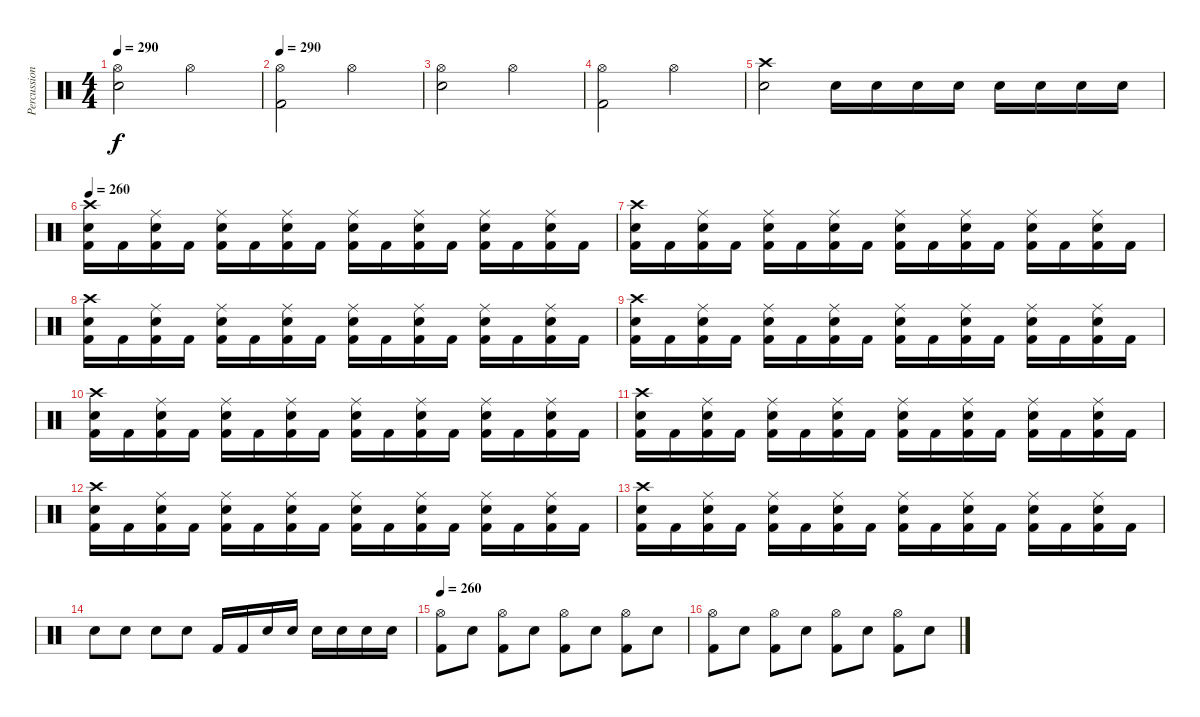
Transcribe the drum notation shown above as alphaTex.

\track ("Percussion" "Percussion") {instrument percussion}
\staff {score}
\articulation defaults
\ts (4 4)
\tempo 290
\clef neutral
\ks c
("Hi-Hat (open)" "Electric Snare (hit)").2{dy f} "Hi-Hat (open)".2 |
\tempo 290
("Hi-Hat (open)" "Kick (hit) 2").2 "Hi-Hat (open)".2 |
("Hi-Hat (open)" "Electric Snare (hit)").2 "Hi-Hat (open)".2 |
("Hi-Hat (open)" "Kick (hit) 2").2 "Hi-Hat (open)".2 |
("Crash high (hit)" "Electric Snare (hit)").2 "Electric Snare (hit)".16 "Electric Snare (hit)".16 "Electric Snare (hit)".16 "Electric Snare (hit)".16 "Electric Snare (hit)".16 "Electric Snare (hit)".16 "Electric Snare (hit)".16 "Electric Snare (hit)".16 |
\tempo 260
("Crash high (hit)" "Electric Snare (hit)" "Kick (hit) 2").16 "Kick (hit) 2".16 ("Ride (middle)" "Electric Snare (hit)" "Kick (hit) 2").16 "Kick (hit) 2".16 ("Ride (middle)" "Electric Snare (hit)" "Kick (hit) 2").16 "Kick (hit) 2".16 ("Ride (middle)" "Electric Snare (hit)" "Kick (hit) 2").16 "Kick (hit) 2".16 ("Ride (middle)" "Electric Snare (hit)" "Kick (hit) 2").16 "Kick (hit) 2".16 ("Ride (middle)" "Electric Snare (hit)" "Kick (hit) 2").16 "Kick (hit) 2".16 ("Ride (middle)" "Electric Snare (hit)" "Kick (hit) 2").16 "Kick (hit) 2".16 ("Ride (middle)" "Electric Snare (hit)" "Kick (hit) 2").16 "Kick (hit) 2".16 |
("Crash high (hit)" "Electric Snare (hit)" "Kick (hit) 2").16 "Kick (hit) 2".16 ("Ride (middle)" "Electric Snare (hit)" "Kick (hit) 2").16 "Kick (hit) 2".16 ("Ride (middle)" "Electric Snare (hit)" "Kick (hit) 2").16 "Kick (hit) 2".16 ("Ride (middle)" "Electric Snare (hit)" "Kick (hit) 2").16 "Kick (hit) 2".16 ("Ride (middle)" "Electric Snare (hit)" "Kick (hit) 2").16 "Kick (hit) 2".16 ("Ride (middle)" "Electric Snare (hit)" "Kick (hit) 2").16 "Kick (hit) 2".16 ("Ride (middle)" "Electric Snare (hit)" "Kick (hit) 2").16 "Kick (hit) 2".16 ("Ride (middle)" "Electric Snare (hit)" "Kick (hit) 2").16 "Kick (hit) 2".16 |
("Crash high (hit)" "Electric Snare (hit)" "Kick (hit) 2").16 "Kick (hit) 2".16 ("Ride (middle)" "Electric Snare (hit)" "Kick (hit) 2").16 "Kick (hit) 2".16 ("Ride (middle)" "Electric Snare (hit)" "Kick (hit) 2").16 "Kick (hit) 2".16 ("Ride (middle)" "Electric Snare (hit)" "Kick (hit) 2").16 "Kick (hit) 2".16 ("Ride (middle)" "Electric Snare (hit)" "Kick (hit) 2").16 "Kick (hit) 2".16 ("Ride (middle)" "Electric Snare (hit)" "Kick (hit) 2").16 "Kick (hit) 2".16 ("Ride (middle)" "Electric Snare (hit)" "Kick (hit) 2").16 "Kick (hit) 2".16 ("Ride (middle)" "Electric Snare (hit)" "Kick (hit) 2").16 "Kick (hit) 2".16 |
("Crash high (hit)" "Electric Snare (hit)" "Kick (hit) 2").16 "Kick (hit) 2".16 ("Ride (middle)" "Electric Snare (hit)" "Kick (hit) 2").16 "Kick (hit) 2".16 ("Ride (middle)" "Electric Snare (hit)" "Kick (hit) 2").16 "Kick (hit) 2".16 ("Ride (middle)" "Electric Snare (hit)" "Kick (hit) 2").16 "Kick (hit) 2".16 ("Ride (middle)" "Electric Snare (hit)" "Kick (hit) 2").16 "Kick (hit) 2".16 ("Ride (middle)" "Electric Snare (hit)" "Kick (hit) 2").16 "Kick (hit) 2".16 ("Ride (middle)" "Electric Snare (hit)" "Kick (hit) 2").16 "Kick (hit) 2".16 ("Ride (middle)" "Electric Snare (hit)" "Kick (hit) 2").16 "Kick (hit) 2".16 |
("Crash high (hit)" "Electric Snare (hit)" "Kick (hit) 2").16 "Kick (hit) 2".16 ("Ride (middle)" "Electric Snare (hit)" "Kick (hit) 2").16 "Kick (hit) 2".16 ("Ride (middle)" "Electric Snare (hit)" "Kick (hit) 2").16 "Kick (hit) 2".16 ("Ride (middle)" "Electric Snare (hit)" "Kick (hit) 2").16 "Kick (hit) 2".16 ("Ride (middle)" "Electric Snare (hit)" "Kick (hit) 2").16 "Kick (hit) 2".16 ("Ride (middle)" "Electric Snare (hit)" "Kick (hit) 2").16 "Kick (hit) 2".16 ("Ride (middle)" "Electric Snare (hit)" "Kick (hit) 2").16 "Kick (hit) 2".16 ("Ride (middle)" "Electric Snare (hit)" "Kick (hit) 2").16 "Kick (hit) 2".16 |
("Crash high (hit)" "Electric Snare (hit)" "Kick (hit) 2").16 "Kick (hit) 2".16 ("Ride (middle)" "Electric Snare (hit)" "Kick (hit) 2").16 "Kick (hit) 2".16 ("Ride (middle)" "Electric Snare (hit)" "Kick (hit) 2").16 "Kick (hit) 2".16 ("Ride (middle)" "Electric Snare (hit)" "Kick (hit) 2").16 "Kick (hit) 2".16 ("Ride (middle)" "Electric Snare (hit)" "Kick (hit) 2").16 "Kick (hit) 2".16 ("Ride (middle)" "Electric Snare (hit)" "Kick (hit) 2").16 "Kick (hit) 2".16 ("Ride (middle)" "Electric Snare (hit)" "Kick (hit) 2").16 "Kick (hit) 2".16 ("Ride (middle)" "Electric Snare (hit)" "Kick (hit) 2").16 "Kick (hit) 2".16 |
("Crash high (hit)" "Electric Snare (hit)" "Kick (hit) 2").16 "Kick (hit) 2".16 ("Ride (middle)" "Electric Snare (hit)" "Kick (hit) 2").16 "Kick (hit) 2".16 ("Ride (middle)" "Electric Snare (hit)" "Kick (hit) 2").16 "Kick (hit) 2".16 ("Ride (middle)" "Electric Snare (hit)" "Kick (hit) 2").16 "Kick (hit) 2".16 ("Ride (middle)" "Electric Snare (hit)" "Kick (hit) 2").16 "Kick (hit) 2".16 ("Ride (middle)" "Electric Snare (hit)" "Kick (hit) 2").16 "Kick (hit) 2".16 ("Ride (middle)" "Electric Snare (hit)" "Kick (hit) 2").16 "Kick (hit) 2".16 ("Ride (middle)" "Electric Snare (hit)" "Kick (hit) 2").16 "Kick (hit) 2".16 |
("Crash high (hit)" "Electric Snare (hit)" "Kick (hit) 2").16 "Kick (hit) 2".16 ("Ride (middle)" "Electric Snare (hit)" "Kick (hit) 2").16 "Kick (hit) 2".16 ("Ride (middle)" "Electric Snare (hit)" "Kick (hit) 2").16 "Kick (hit) 2".16 ("Ride (middle)" "Electric Snare (hit)" "Kick (hit) 2").16 "Kick (hit) 2".16 ("Ride (middle)" "Electric Snare (hit)" "Kick (hit) 2").16 "Kick (hit) 2".16 ("Ride (middle)" "Electric Snare (hit)" "Kick (hit) 2").16 "Kick (hit) 2".16 ("Ride (middle)" "Electric Snare (hit)" "Kick (hit) 2").16 "Kick (hit) 2".16 ("Ride (middle)" "Electric Snare (hit)" "Kick (hit) 2").16 "Kick (hit) 2".16 |
"Electric Snare (hit)".8 "Electric Snare (hit)".8 "Electric Snare (hit)".8 "Electric Snare (hit)".8 "Kick (hit) 2".16 "Kick (hit) 2".16 "Electric Snare (hit)".16 "Electric Snare (hit)".16 "Electric Snare (hit)".16 "Electric Snare (hit)".16 "Electric Snare (hit)".16 "Electric Snare (hit)".16 |
\tempo 260
("Hi-Hat (open)" "Kick (hit) 2").8 "Electric Snare (hit)".8 ("Hi-Hat (open)" "Kick (hit) 2").8 "Electric Snare (hit)".8 ("Hi-Hat (open)" "Kick (hit) 2").8 "Electric Snare (hit)".8 ("Hi-Hat (open)" "Kick (hit) 2").8 "Electric Snare (hit)".8 |
("Hi-Hat (open)" "Kick (hit) 2").8 "Electric Snare (hit)".8 ("Hi-Hat (open)" "Kick (hit) 2").8 "Electric Snare (hit)".8 ("Hi-Hat (open)" "Kick (hit) 2").8 "Electric Snare (hit)".8 ("Hi-Hat (open)" "Kick (hit) 2").8 "Electric Snare (hit)".8
